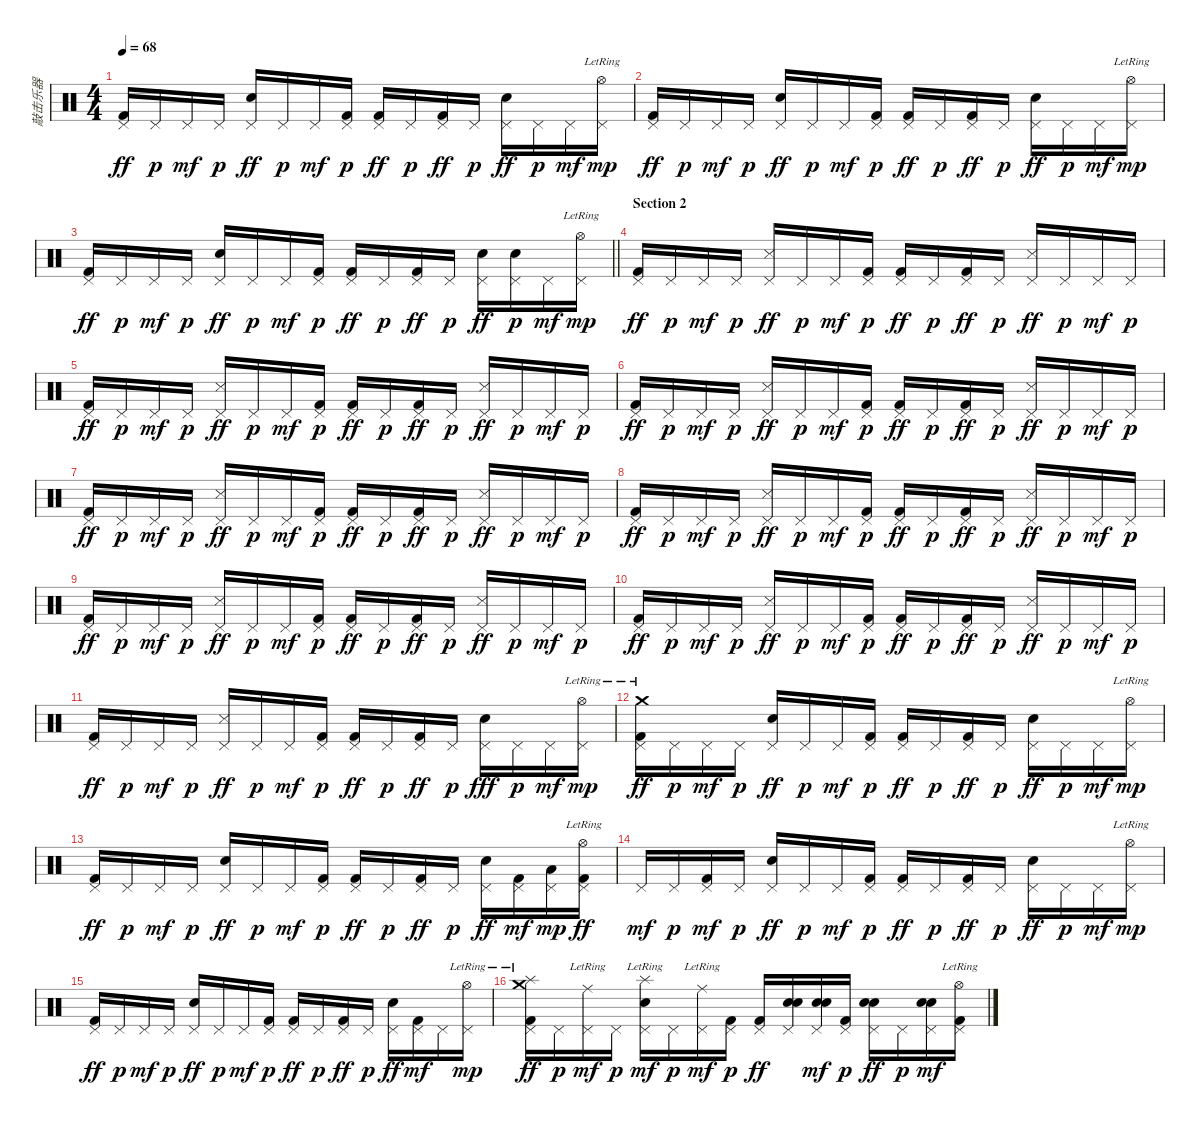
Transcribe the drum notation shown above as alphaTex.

\track ("敲击乐器" "敲击乐器") {instrument percussion}
\staff {score}
\articulation defaults
\ts (4 4)
\tempo 68
\clef neutral
\ks c
("Pedal Hi-Hat (hit)" "Kick (hit) 2").16{dy ff} "Pedal Hi-Hat (hit)".16{dy p} "Pedal Hi-Hat (hit)".16{dy mf} "Pedal Hi-Hat (hit)".16{dy p} ("Pedal Hi-Hat (hit)" "Electric Snare (hit)").16{dy ff} "Pedal Hi-Hat (hit)".16{dy p} "Pedal Hi-Hat (hit)".16{dy mf} ("Pedal Hi-Hat (hit)" "Kick (hit) 2").16{dy p} ("Pedal Hi-Hat (hit)" "Kick (hit) 2").16{dy ff} "Pedal Hi-Hat (hit)".16{dy p} ("Pedal Hi-Hat (hit)" "Kick (hit) 2").16{dy ff} "Pedal Hi-Hat (hit)".16{dy p} ("Pedal Hi-Hat (hit)" "Electric Snare (hit)").16{dy ff} "Pedal Hi-Hat (hit)".16{dy p} "Pedal Hi-Hat (hit)".16{dy mf} ("Pedal Hi-Hat (hit)" "Hi-Hat (open)"{lr}).16{dy mp} |
("Pedal Hi-Hat (hit)" "Kick (hit) 2").16{dy ff} "Pedal Hi-Hat (hit)".16{dy p} "Pedal Hi-Hat (hit)".16{dy mf} "Pedal Hi-Hat (hit)".16{dy p} ("Pedal Hi-Hat (hit)" "Electric Snare (hit)").16{dy ff} "Pedal Hi-Hat (hit)".16{dy p} "Pedal Hi-Hat (hit)".16{dy mf} ("Pedal Hi-Hat (hit)" "Kick (hit) 2").16{dy p} ("Pedal Hi-Hat (hit)" "Kick (hit) 2").16{dy ff} "Pedal Hi-Hat (hit)".16{dy p} ("Pedal Hi-Hat (hit)" "Kick (hit) 2").16{dy ff} "Pedal Hi-Hat (hit)".16{dy p} ("Pedal Hi-Hat (hit)" "Electric Snare (hit)").16{dy ff} "Pedal Hi-Hat (hit)".16{dy p} "Pedal Hi-Hat (hit)".16{dy mf} ("Pedal Hi-Hat (hit)" "Hi-Hat (open)"{lr}).16{dy mp} |
\barLineRight lightlight
("Pedal Hi-Hat (hit)" "Kick (hit) 2").16{dy ff} "Pedal Hi-Hat (hit)".16{dy p} "Pedal Hi-Hat (hit)".16{dy mf} "Pedal Hi-Hat (hit)".16{dy p} ("Pedal Hi-Hat (hit)" "Electric Snare (hit)").16{dy ff} "Pedal Hi-Hat (hit)".16{dy p} "Pedal Hi-Hat (hit)".16{dy mf} ("Pedal Hi-Hat (hit)" "Kick (hit) 2").16{dy p} ("Pedal Hi-Hat (hit)" "Kick (hit) 2").16{dy ff} "Pedal Hi-Hat (hit)".16{dy p} ("Pedal Hi-Hat (hit)" "Kick (hit) 2").16{dy ff} "Pedal Hi-Hat (hit)".16{dy p} ("Pedal Hi-Hat (hit)" "Electric Snare (hit)").16{dy ff} ("Pedal Hi-Hat (hit)" "Electric Snare (hit)").16{dy p} "Pedal Hi-Hat (hit)".16{dy mf} ("Pedal Hi-Hat (hit)" "Hi-Hat (open)"{lr}).16{dy mp} |
\section ("" "Section 2")
("Pedal Hi-Hat (hit)" "Kick (hit) 2").16{dy ff} "Pedal Hi-Hat (hit)".16{dy p} "Pedal Hi-Hat (hit)".16{dy mf} "Pedal Hi-Hat (hit)".16{dy p} ("Pedal Hi-Hat (hit)" "Snare (side stick) 3").16{dy ff} "Pedal Hi-Hat (hit)".16{dy p} "Pedal Hi-Hat (hit)".16{dy mf} ("Pedal Hi-Hat (hit)" "Kick (hit) 2").16{dy p} ("Pedal Hi-Hat (hit)" "Kick (hit) 2").16{dy ff} "Pedal Hi-Hat (hit)".16{dy p} ("Pedal Hi-Hat (hit)" "Kick (hit) 2").16{dy ff} "Pedal Hi-Hat (hit)".16{dy p} ("Pedal Hi-Hat (hit)" "Snare (side stick) 3").16{dy ff} "Pedal Hi-Hat (hit)".16{dy p} "Pedal Hi-Hat (hit)".16{dy mf} "Pedal Hi-Hat (hit)".16{dy p} |
("Pedal Hi-Hat (hit)" "Kick (hit) 2").16{dy ff} "Pedal Hi-Hat (hit)".16{dy p} "Pedal Hi-Hat (hit)".16{dy mf} "Pedal Hi-Hat (hit)".16{dy p} ("Pedal Hi-Hat (hit)" "Snare (side stick) 3").16{dy ff} "Pedal Hi-Hat (hit)".16{dy p} "Pedal Hi-Hat (hit)".16{dy mf} ("Pedal Hi-Hat (hit)" "Kick (hit) 2").16{dy p} ("Pedal Hi-Hat (hit)" "Kick (hit) 2").16{dy ff} "Pedal Hi-Hat (hit)".16{dy p} ("Pedal Hi-Hat (hit)" "Kick (hit) 2").16{dy ff} "Pedal Hi-Hat (hit)".16{dy p} ("Pedal Hi-Hat (hit)" "Snare (side stick) 3").16{dy ff} "Pedal Hi-Hat (hit)".16{dy p} "Pedal Hi-Hat (hit)".16{dy mf} "Pedal Hi-Hat (hit)".16{dy p} |
("Pedal Hi-Hat (hit)" "Kick (hit) 2").16{dy ff} "Pedal Hi-Hat (hit)".16{dy p} "Pedal Hi-Hat (hit)".16{dy mf} "Pedal Hi-Hat (hit)".16{dy p} ("Pedal Hi-Hat (hit)" "Snare (side stick) 3").16{dy ff} "Pedal Hi-Hat (hit)".16{dy p} "Pedal Hi-Hat (hit)".16{dy mf} ("Pedal Hi-Hat (hit)" "Kick (hit) 2").16{dy p} ("Pedal Hi-Hat (hit)" "Kick (hit) 2").16{dy ff} "Pedal Hi-Hat (hit)".16{dy p} ("Pedal Hi-Hat (hit)" "Kick (hit) 2").16{dy ff} "Pedal Hi-Hat (hit)".16{dy p} ("Pedal Hi-Hat (hit)" "Snare (side stick) 3").16{dy ff} "Pedal Hi-Hat (hit)".16{dy p} "Pedal Hi-Hat (hit)".16{dy mf} "Pedal Hi-Hat (hit)".16{dy p} |
("Pedal Hi-Hat (hit)" "Kick (hit) 2").16{dy ff} "Pedal Hi-Hat (hit)".16{dy p} "Pedal Hi-Hat (hit)".16{dy mf} "Pedal Hi-Hat (hit)".16{dy p} ("Pedal Hi-Hat (hit)" "Snare (side stick) 3").16{dy ff} "Pedal Hi-Hat (hit)".16{dy p} "Pedal Hi-Hat (hit)".16{dy mf} ("Pedal Hi-Hat (hit)" "Kick (hit) 2").16{dy p} ("Pedal Hi-Hat (hit)" "Kick (hit) 2").16{dy ff} "Pedal Hi-Hat (hit)".16{dy p} ("Pedal Hi-Hat (hit)" "Kick (hit) 2").16{dy ff} "Pedal Hi-Hat (hit)".16{dy p} ("Pedal Hi-Hat (hit)" "Snare (side stick) 3").16{dy ff} "Pedal Hi-Hat (hit)".16{dy p} "Pedal Hi-Hat (hit)".16{dy mf} "Pedal Hi-Hat (hit)".16{dy p} |
("Pedal Hi-Hat (hit)" "Kick (hit) 2").16{dy ff} "Pedal Hi-Hat (hit)".16{dy p} "Pedal Hi-Hat (hit)".16{dy mf} "Pedal Hi-Hat (hit)".16{dy p} ("Pedal Hi-Hat (hit)" "Snare (side stick) 3").16{dy ff} "Pedal Hi-Hat (hit)".16{dy p} "Pedal Hi-Hat (hit)".16{dy mf} ("Pedal Hi-Hat (hit)" "Kick (hit) 2").16{dy p} ("Pedal Hi-Hat (hit)" "Kick (hit) 2").16{dy ff} "Pedal Hi-Hat (hit)".16{dy p} ("Pedal Hi-Hat (hit)" "Kick (hit) 2").16{dy ff} "Pedal Hi-Hat (hit)".16{dy p} ("Pedal Hi-Hat (hit)" "Snare (side stick) 3").16{dy ff} "Pedal Hi-Hat (hit)".16{dy p} "Pedal Hi-Hat (hit)".16{dy mf} "Pedal Hi-Hat (hit)".16{dy p} |
("Pedal Hi-Hat (hit)" "Kick (hit) 2").16{dy ff} "Pedal Hi-Hat (hit)".16{dy p} "Pedal Hi-Hat (hit)".16{dy mf} "Pedal Hi-Hat (hit)".16{dy p} ("Pedal Hi-Hat (hit)" "Snare (side stick) 3").16{dy ff} "Pedal Hi-Hat (hit)".16{dy p} "Pedal Hi-Hat (hit)".16{dy mf} ("Pedal Hi-Hat (hit)" "Kick (hit) 2").16{dy p} ("Pedal Hi-Hat (hit)" "Kick (hit) 2").16{dy ff} "Pedal Hi-Hat (hit)".16{dy p} ("Pedal Hi-Hat (hit)" "Kick (hit) 2").16{dy ff} "Pedal Hi-Hat (hit)".16{dy p} ("Pedal Hi-Hat (hit)" "Snare (side stick) 3").16{dy ff} "Pedal Hi-Hat (hit)".16{dy p} "Pedal Hi-Hat (hit)".16{dy mf} "Pedal Hi-Hat (hit)".16{dy p} |
("Pedal Hi-Hat (hit)" "Kick (hit) 2").16{dy ff} "Pedal Hi-Hat (hit)".16{dy p} "Pedal Hi-Hat (hit)".16{dy mf} "Pedal Hi-Hat (hit)".16{dy p} ("Pedal Hi-Hat (hit)" "Snare (side stick) 3").16{dy ff} "Pedal Hi-Hat (hit)".16{dy p} "Pedal Hi-Hat (hit)".16{dy mf} ("Pedal Hi-Hat (hit)" "Kick (hit) 2").16{dy p} ("Pedal Hi-Hat (hit)" "Kick (hit) 2").16{dy ff} "Pedal Hi-Hat (hit)".16{dy p} ("Pedal Hi-Hat (hit)" "Kick (hit) 2").16{dy ff} "Pedal Hi-Hat (hit)".16{dy p} ("Pedal Hi-Hat (hit)" "Snare (side stick) 3").16{dy ff} "Pedal Hi-Hat (hit)".16{dy p} "Pedal Hi-Hat (hit)".16{dy mf} "Pedal Hi-Hat (hit)".16{dy p} |
("Pedal Hi-Hat (hit)" "Kick (hit) 2").16{dy ff} "Pedal Hi-Hat (hit)".16{dy p} "Pedal Hi-Hat (hit)".16{dy mf} "Pedal Hi-Hat (hit)".16{dy p} ("Pedal Hi-Hat (hit)" "Snare (side stick) 3").16{dy ff} "Pedal Hi-Hat (hit)".16{dy p} "Pedal Hi-Hat (hit)".16{dy mf} ("Pedal Hi-Hat (hit)" "Kick (hit) 2").16{dy p} ("Pedal Hi-Hat (hit)" "Kick (hit) 2").16{dy ff} "Pedal Hi-Hat (hit)".16{dy p} ("Pedal Hi-Hat (hit)" "Kick (hit) 2").16{dy ff} "Pedal Hi-Hat (hit)".16{dy p} ("Pedal Hi-Hat (hit)" "Electric Snare (hit)").16{dy fff} "Pedal Hi-Hat (hit)".16{dy p} "Pedal Hi-Hat (hit)".16{dy mf} ("Pedal Hi-Hat (hit)" "Hi-Hat (open)"{lr}).16{dy mp} |
("Pedal Hi-Hat (hit)" "Crash medium (hit)"{lr} "Kick (hit) 2").16{dy ff} "Pedal Hi-Hat (hit)".16{dy p} "Pedal Hi-Hat (hit)".16{dy mf} "Pedal Hi-Hat (hit)".16{dy p} ("Pedal Hi-Hat (hit)" "Electric Snare (hit)").16{dy ff} "Pedal Hi-Hat (hit)".16{dy p} "Pedal Hi-Hat (hit)".16{dy mf} ("Pedal Hi-Hat (hit)" "Kick (hit) 2").16{dy p} ("Pedal Hi-Hat (hit)" "Kick (hit) 2").16{dy ff} "Pedal Hi-Hat (hit)".16{dy p} ("Pedal Hi-Hat (hit)" "Kick (hit) 2").16{dy ff} "Pedal Hi-Hat (hit)".16{dy p} ("Pedal Hi-Hat (hit)" "Electric Snare (hit)").16{dy ff} "Pedal Hi-Hat (hit)".16{dy p} "Pedal Hi-Hat (hit)".16{dy mf} ("Pedal Hi-Hat (hit)" "Hi-Hat (open)"{lr}).16{dy mp} |
("Pedal Hi-Hat (hit)" "Kick (hit) 2").16{dy ff} "Pedal Hi-Hat (hit)".16{dy p} "Pedal Hi-Hat (hit)".16{dy mf} "Pedal Hi-Hat (hit)".16{dy p} ("Pedal Hi-Hat (hit)" "Electric Snare (hit)").16{dy ff} "Pedal Hi-Hat (hit)".16{dy p} "Pedal Hi-Hat (hit)".16{dy mf} ("Pedal Hi-Hat (hit)" "Kick (hit) 2").16{dy p} ("Pedal Hi-Hat (hit)" "Kick (hit) 2").16{dy ff} "Pedal Hi-Hat (hit)".16{dy p} ("Pedal Hi-Hat (hit)" "Kick (hit) 2").16{dy ff} "Pedal Hi-Hat (hit)".16{dy p} ("Pedal Hi-Hat (hit)" "Electric Snare (hit)").16{dy ff} ("Pedal Hi-Hat (hit)" "Kick (hit) 2").16{dy mf} ("Pedal Hi-Hat (hit)" "Low Floor Tom (hit)").16{dy mp} ("Pedal Hi-Hat (hit)" "Hi-Hat (open)"{lr} "Kick (hit) 2"{lr}).16{dy ff} |
"Pedal Hi-Hat (hit)".16{dy mf} "Pedal Hi-Hat (hit)".16{dy p} ("Pedal Hi-Hat (hit)" "Kick (hit) 2").16{dy mf} "Pedal Hi-Hat (hit)".16{dy p} ("Pedal Hi-Hat (hit)" "Electric Snare (hit)").16{dy ff} "Pedal Hi-Hat (hit)".16{dy p} "Pedal Hi-Hat (hit)".16{dy mf} ("Pedal Hi-Hat (hit)" "Kick (hit) 2").16{dy p} ("Pedal Hi-Hat (hit)" "Kick (hit) 2").16{dy ff} "Pedal Hi-Hat (hit)".16{dy p} ("Pedal Hi-Hat (hit)" "Kick (hit) 2").16{dy ff} "Pedal Hi-Hat (hit)".16{dy p} ("Pedal Hi-Hat (hit)" "Electric Snare (hit)").16{dy ff} "Pedal Hi-Hat (hit)".16{dy p} "Pedal Hi-Hat (hit)".16{dy mf} ("Pedal Hi-Hat (hit)" "Hi-Hat (open)"{lr}).16{dy mp} |
("Pedal Hi-Hat (hit)" "Kick (hit) 2").16{dy ff} "Pedal Hi-Hat (hit)".16{dy p} "Pedal Hi-Hat (hit)".16{dy mf} "Pedal Hi-Hat (hit)".16{dy p} ("Pedal Hi-Hat (hit)" "Electric Snare (hit)").16{dy ff} "Pedal Hi-Hat (hit)".16{dy p} "Pedal Hi-Hat (hit)".16{dy mf} ("Pedal Hi-Hat (hit)" "Kick (hit) 2").16{dy p} ("Pedal Hi-Hat (hit)" "Kick (hit) 2").16{dy ff} "Pedal Hi-Hat (hit)".16{dy p} ("Pedal Hi-Hat (hit)" "Kick (hit) 2").16{dy ff} "Pedal Hi-Hat (hit)".16{dy p} ("Pedal Hi-Hat (hit)" "Electric Snare (hit)").16{dy ff} ("Pedal Hi-Hat (hit)" "Kick (hit) 2").16{dy mf} "Pedal Hi-Hat (hit)".16 ("Pedal Hi-Hat (hit)" "Hi-Hat (open)"{lr}).16{dy mp} |
("Pedal Hi-Hat (hit)" "Splash (hit)" "Crash medium (hit)"{lr} "Kick (hit) 2").16{dy ff} "Pedal Hi-Hat (hit)".16{dy p} ("Pedal Hi-Hat (hit)" "Ride (middle)"{lr}).16{dy mf} "Pedal Hi-Hat (hit)".16{dy p} ("Pedal Hi-Hat (hit)" "Splash (hit)"{lr} "Electric Snare (hit)").16{dy mf} "Pedal Hi-Hat (hit)".16{dy p} ("Pedal Hi-Hat (hit)" "Ride (middle)"{lr}).16{dy mf} ("Pedal Hi-Hat (hit)" "Kick (hit) 2").16{dy p} ("Pedal Hi-Hat (hit)" "Kick (hit) 2").16{dy ff} ("Pedal Hi-Hat (hit)" "Electric Snare (hit)" "Electric Snare (hit)").16{bd 60} ("Pedal Hi-Hat (hit)" "Electric Snare (hit)" "Electric Snare (hit)").16{bd 60 dy mf} ("Pedal Hi-Hat (hit)" "Kick (hit) 2").16{dy p} ("Pedal Hi-Hat (hit)" "Electric Snare (hit)" "Electric Snare (hit)").16{bd 60 dy ff} "Pedal Hi-Hat (hit)".16{dy p} ("Pedal Hi-Hat (hit)" "Electric Snare (hit)" "Electric Snare (hit)").16{bd 60 dy mf} ("Pedal Hi-Hat (hit)" "Hi-Hat (open)"{lr} "Kick (hit) 2").16
